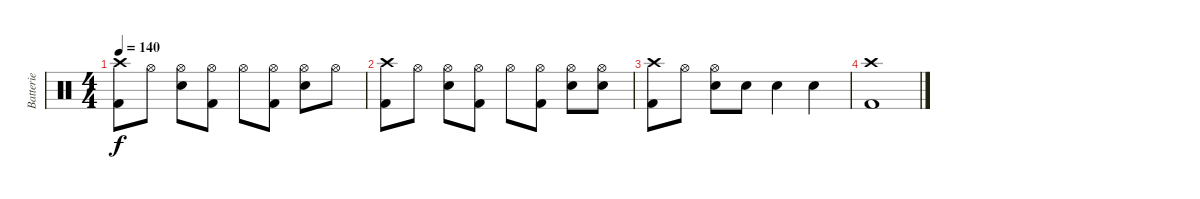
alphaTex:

\track ("Batterie" "Batterie") {instrument percussion}
\staff {score}
\articulation defaults
\ts (4 4)
\tempo 140
\clef neutral
\ks c
("Crash high (hit)" "Kick (hit) 2").8{dy f} "Hi-Hat (open)".8 ("Electric Snare (hit)" "Hi-Hat (open)").8 ("Hi-Hat (open)" "Kick (hit) 2").8 "Hi-Hat (open)".8 ("Hi-Hat (open)" "Kick (hit) 2").8 ("Electric Snare (hit)" "Hi-Hat (open)").8 "Hi-Hat (open)".8 |
("Crash high (hit)" "Kick (hit) 2").8 "Hi-Hat (open)".8 ("Electric Snare (hit)" "Hi-Hat (open)").8 ("Hi-Hat (open)" "Kick (hit) 2").8 "Hi-Hat (open)".8 ("Hi-Hat (open)" "Kick (hit) 2").8 ("Electric Snare (hit)" "Hi-Hat (open)").8 ("Electric Snare (hit)" "Hi-Hat (open)").8 |
("Crash high (hit)" "Kick (hit) 2").8 "Hi-Hat (open)".8 ("Electric Snare (hit)" "Hi-Hat (open)").8 "Electric Snare (hit)".8 "Electric Snare (hit)".4 "Electric Snare (hit)".4 |
("Crash high (hit)" "Kick (hit) 2").1
